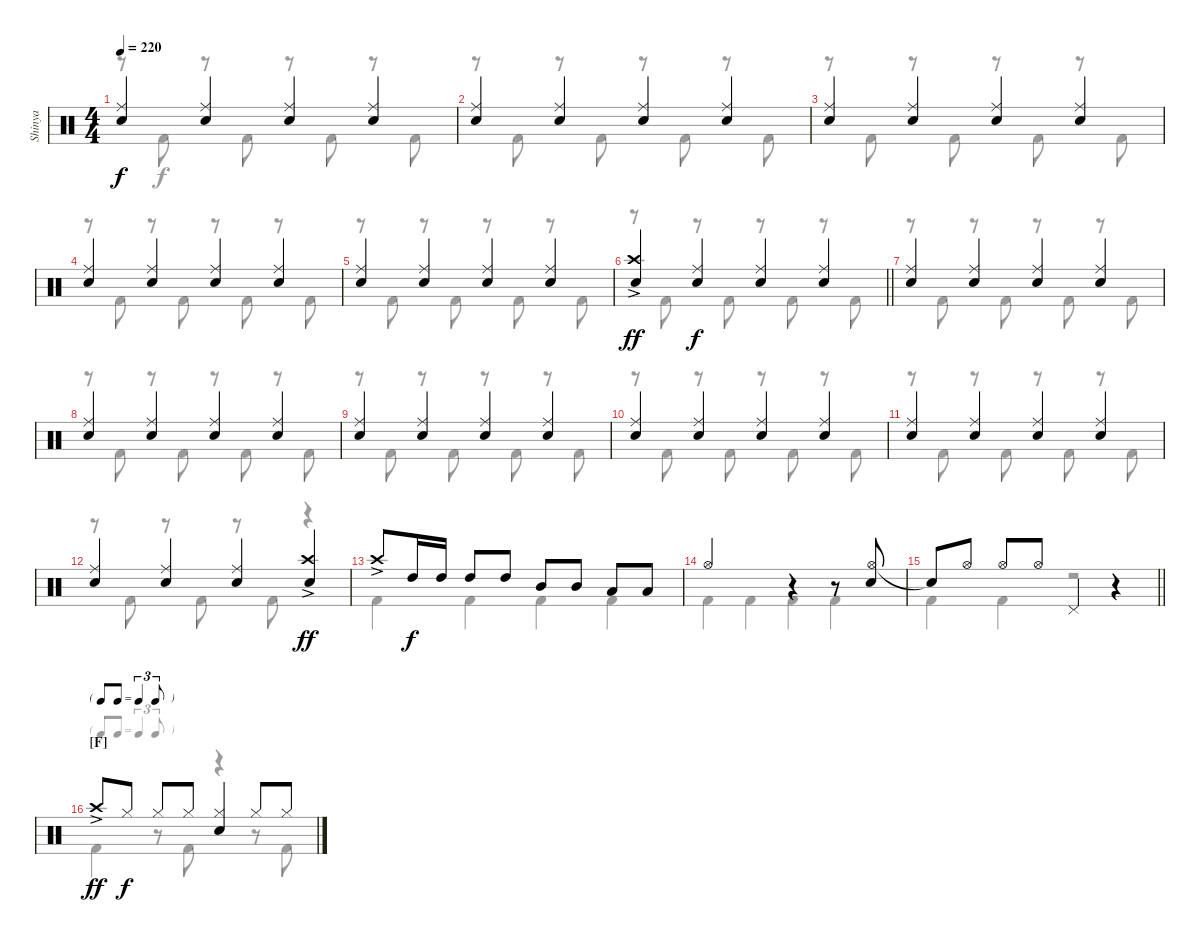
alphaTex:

\track ("Shinya" "Shinya") {instrument percussion}
\staff {score}
\articulation defaults
\voice
\ts (4 4)
\tempo 220
\clef neutral
\ks c
("Ride (middle)" "Snare (hit) 2").4{dy f} ("Ride (middle)" "Snare (hit) 2").4 ("Ride (middle)" "Snare (hit) 2").4 ("Ride (middle)" "Snare (hit) 2").4 |
("Ride (middle)" "Snare (hit) 2").4 ("Ride (middle)" "Snare (hit) 2").4 ("Ride (middle)" "Snare (hit) 2").4 ("Ride (middle)" "Snare (hit) 2").4 |
("Ride (middle)" "Snare (hit) 2").4 ("Ride (middle)" "Snare (hit) 2").4 ("Ride (middle)" "Snare (hit) 2").4 ("Ride (middle)" "Snare (hit) 2").4 |
("Ride (middle)" "Snare (hit) 2").4 ("Ride (middle)" "Snare (hit) 2").4 ("Ride (middle)" "Snare (hit) 2").4 ("Ride (middle)" "Snare (hit) 2").4 |
("Ride (middle)" "Snare (hit) 2").4 ("Ride (middle)" "Snare (hit) 2").4 ("Ride (middle)" "Snare (hit) 2").4 ("Ride (middle)" "Snare (hit) 2").4 |
\barLineRight lightlight
("Crash high (hit)"{ac} "Snare (hit) 2").4{dy ff} ("Ride (middle)" "Snare (hit) 2").4{dy f} ("Ride (middle)" "Snare (hit) 2").4 ("Ride (middle)" "Snare (hit) 2").4 |
("Ride (middle)" "Snare (hit) 2").4 ("Ride (middle)" "Snare (hit) 2").4 ("Ride (middle)" "Snare (hit) 2").4 ("Ride (middle)" "Snare (hit) 2").4 |
("Ride (middle)" "Snare (hit) 2").4 ("Ride (middle)" "Snare (hit) 2").4 ("Ride (middle)" "Snare (hit) 2").4 ("Ride (middle)" "Snare (hit) 2").4 |
("Ride (middle)" "Snare (hit) 2").4 ("Ride (middle)" "Snare (hit) 2").4 ("Ride (middle)" "Snare (hit) 2").4 ("Ride (middle)" "Snare (hit) 2").4 |
("Ride (middle)" "Snare (hit) 2").4 ("Ride (middle)" "Snare (hit) 2").4 ("Ride (middle)" "Snare (hit) 2").4 ("Ride (middle)" "Snare (hit) 2").4 |
("Ride (middle)" "Snare (hit) 2").4 ("Ride (middle)" "Snare (hit) 2").4 ("Ride (middle)" "Snare (hit) 2").4 ("Ride (middle)" "Snare (hit) 2").4 |
("Ride (middle)" "Snare (hit) 2").4 ("Ride (middle)" "Snare (hit) 2").4 ("Ride (middle)" "Snare (hit) 2").4 ("Crash high (hit)"{ac} "Snare (hit) 2").4{dy ff} |
"Crash high (hit)"{ac}.8 "High Tom (hit)".16{dy f} "High Tom (hit)".16 "High Tom (hit)".8 "High Tom (hit)".8 "Mid Tom (hit)".8 "Mid Tom (hit)".8 "Low Tom (hit)".8 "Low Tom (hit)".8 |
"Hi-Hat (open)".2 r.4 r.8 ("Hi-Hat (open)" "Snare (hit) 2").8 |
\barLineRight lightlight "Snare (hit)"{t}.8 "Hi-Hat (open)".8 "Hi-Hat (open)".8 "Hi-Hat (open)".8 "Pedal Hi-Hat (hit)".4
r.4 |
\tf triplet8th
\section ("" "[F]")
"Crash high (hit)"{ac}.8{dy ff volume 10} "Hi-Hat (closed)".8{dy f} "Hi-Hat (closed)".8 "Hi-Hat (closed)".8 ("Hi-Hat (closed)" "Snare (hit) 2").4 "Hi-Hat (closed)".8 "Hi-Hat (closed)".8
\voice
\clef neutral
\ottava regular
\simile none
\ks c
r.8{dy f} "Kick (hit) 2".8 r.8 "Kick (hit) 2".8 r.8 "Kick (hit) 2".8 r.8 "Kick (hit) 2".8 |
r.8 "Kick (hit) 2".8 r.8 "Kick (hit) 2".8 r.8 "Kick (hit) 2".8 r.8 "Kick (hit) 2".8 |
r.8 "Kick (hit) 2".8 r.8 "Kick (hit) 2".8 r.8 "Kick (hit) 2".8 r.8 "Kick (hit) 2".8 |
r.8 "Kick (hit) 2".8 r.8 "Kick (hit) 2".8 r.8 "Kick (hit) 2".8 r.8 "Kick (hit) 2".8 |
r.8 "Kick (hit) 2".8 r.8 "Kick (hit) 2".8 r.8 "Kick (hit) 2".8 r.8 "Kick (hit) 2".8 |
\barLineRight lightlight
r.8 "Kick (hit) 2".8 r.8 "Kick (hit) 2".8 r.8 "Kick (hit) 2".8 r.8 "Kick (hit) 2".8 |
r.8 "Kick (hit) 2".8 r.8 "Kick (hit) 2".8 r.8 "Kick (hit) 2".8 r.8 "Kick (hit) 2".8 |
r.8 "Kick (hit) 2".8 r.8 "Kick (hit) 2".8 r.8 "Kick (hit) 2".8 r.8 "Kick (hit) 2".8 |
r.8 "Kick (hit) 2".8 r.8 "Kick (hit) 2".8 r.8 "Kick (hit) 2".8 r.8 "Kick (hit) 2".8 |
r.8 "Kick (hit) 2".8 r.8 "Kick (hit) 2".8 r.8 "Kick (hit) 2".8 r.8 "Kick (hit) 2".8 |
r.8 "Kick (hit) 2".8 r.8 "Kick (hit) 2".8 r.8 "Kick (hit) 2".8 r.8 "Kick (hit) 2".8 |
r.8 "Kick (hit) 2".8 r.8 "Kick (hit) 2".8 r.8 "Kick (hit) 2".8 r.4 |
"Kick (hit) 2".4 "Kick (hit) 2".4 "Kick (hit) 2".4 "Kick (hit) 2".4 |
"Kick (hit) 2".4 "Kick (hit) 2".4 "Kick (hit) 2".4 "Kick (hit) 2".4 |
\barLineRight lightlight "Kick (hit) 2".4 "Kick (hit) 2".4
r.2 |
"Kick (hit) 2".4 r.8 "Kick (hit) 2".8 r.4 r.8 "Kick (hit) 2".8
